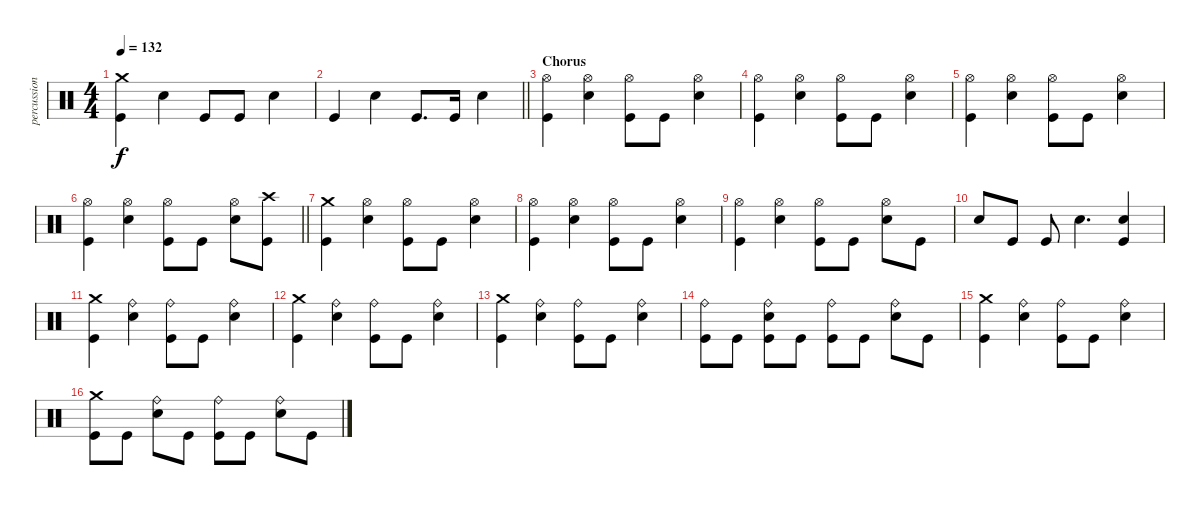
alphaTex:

\track ("percussion" "percussion") {instrument percussion}
\staff {score}
\articulation defaults
\ts (4 4)
\tempo 132
\clef neutral
\ks c
("Crash medium (hit)" "Kick (hit)").4{dy f} "Snare (hit) 2".4 "Kick (hit)".8 "Kick (hit)".8 "Snare (hit) 2".4 |
\barLineRight lightlight "Kick (hit)".4 "Snare (hit) 2".4 "Kick (hit)".8{d} "Kick (hit)".16 "Snare (hit) 2".4
|
\section ("" "Chorus")
("Hi-Hat (open)" "Kick (hit)").4 ("Snare (hit) 2" "Hi-Hat (open)").4 ("Hi-Hat (open)" "Kick (hit)").8 "Kick (hit)".8 ("Snare (hit) 2" "Hi-Hat (open)").4 |
("Hi-Hat (open)" "Kick (hit)").4 ("Snare (hit) 2" "Hi-Hat (open)").4 ("Hi-Hat (open)" "Kick (hit)").8 "Kick (hit)".8 ("Snare (hit) 2" "Hi-Hat (open)").4 |
("Hi-Hat (open)" "Kick (hit)").4 ("Snare (hit) 2" "Hi-Hat (open)").4 ("Hi-Hat (open)" "Kick (hit)").8 "Kick (hit)".8 ("Snare (hit) 2" "Hi-Hat (open)").4 |
\barLineRight lightlight
("Hi-Hat (open)" "Kick (hit)").4 ("Snare (hit) 2" "Hi-Hat (open)").4 ("Hi-Hat (open)" "Kick (hit)").8 "Kick (hit)".8 ("Snare (hit) 2" "Hi-Hat (open)").8 ("Crash high (hit)" "Kick (hit)").8 |
("Crash medium (hit)" "Kick (hit)").4 ("Snare (hit) 2" "Hi-Hat (open)").4 ("Hi-Hat (open)" "Kick (hit)").8 "Kick (hit)".8 ("Snare (hit) 2" "Hi-Hat (open)").4 |
("Hi-Hat (open)" "Kick (hit)").4 ("Snare (hit) 2" "Hi-Hat (open)").4 ("Hi-Hat (open)" "Kick (hit)").8 "Kick (hit)".8 ("Snare (hit) 2" "Hi-Hat (open)").4 |
("Hi-Hat (open)" "Kick (hit)").4 ("Snare (hit) 2" "Hi-Hat (open)").4 ("Hi-Hat (open)" "Kick (hit)").8 "Kick (hit)".8 ("Snare (hit) 2" "Hi-Hat (open)").8 "Kick (hit)".8 |
"Snare (hit) 2".8 "Kick (hit)".8 "Kick (hit)".8 "Snare (hit) 2".4{d} ("Snare (hit) 2" "Kick (hit)").4 |
("Crash medium (hit)" "Kick (hit)").4 ("Ride (bell)" "Snare (hit) 2").4 ("Ride (bell)" "Kick (hit)").8 "Kick (hit)".8 ("Ride (bell)" "Snare (hit) 2").4 |
("Crash medium (hit)" "Kick (hit)").4 ("Ride (bell)" "Snare (hit) 2").4 ("Ride (bell)" "Kick (hit)").8 "Kick (hit)".8 ("Ride (bell)" "Snare (hit) 2").4 |
("Crash medium (hit)" "Kick (hit)").4 ("Ride (bell)" "Snare (hit) 2").4 ("Ride (bell)" "Kick (hit)").8 "Kick (hit)".8 ("Ride (bell)" "Snare (hit) 2").4 |
("Ride (bell)" "Kick (hit)").8 "Kick (hit)".8 ("Ride (bell)" "Snare (hit) 2" "Kick (hit)").8 "Kick (hit)".8 ("Ride (bell)" "Kick (hit)").8 "Kick (hit)".8 ("Ride (bell)" "Snare (hit) 2").8 "Kick (hit)".8 |
("Crash medium (hit)" "Kick (hit)").4 ("Ride (bell)" "Snare (hit) 2").4 ("Ride (bell)" "Kick (hit)").8 "Kick (hit)".8 ("Ride (bell)" "Snare (hit) 2").4 |
("Crash medium (hit)" "Kick (hit)").8 "Kick (hit)".8 ("Ride (bell)" "Snare (hit) 2").8 "Kick (hit)".8 ("Ride (bell)" "Kick (hit)").8 "Kick (hit)".8 ("Ride (bell)" "Snare (hit) 2").8 "Kick (hit)".8
